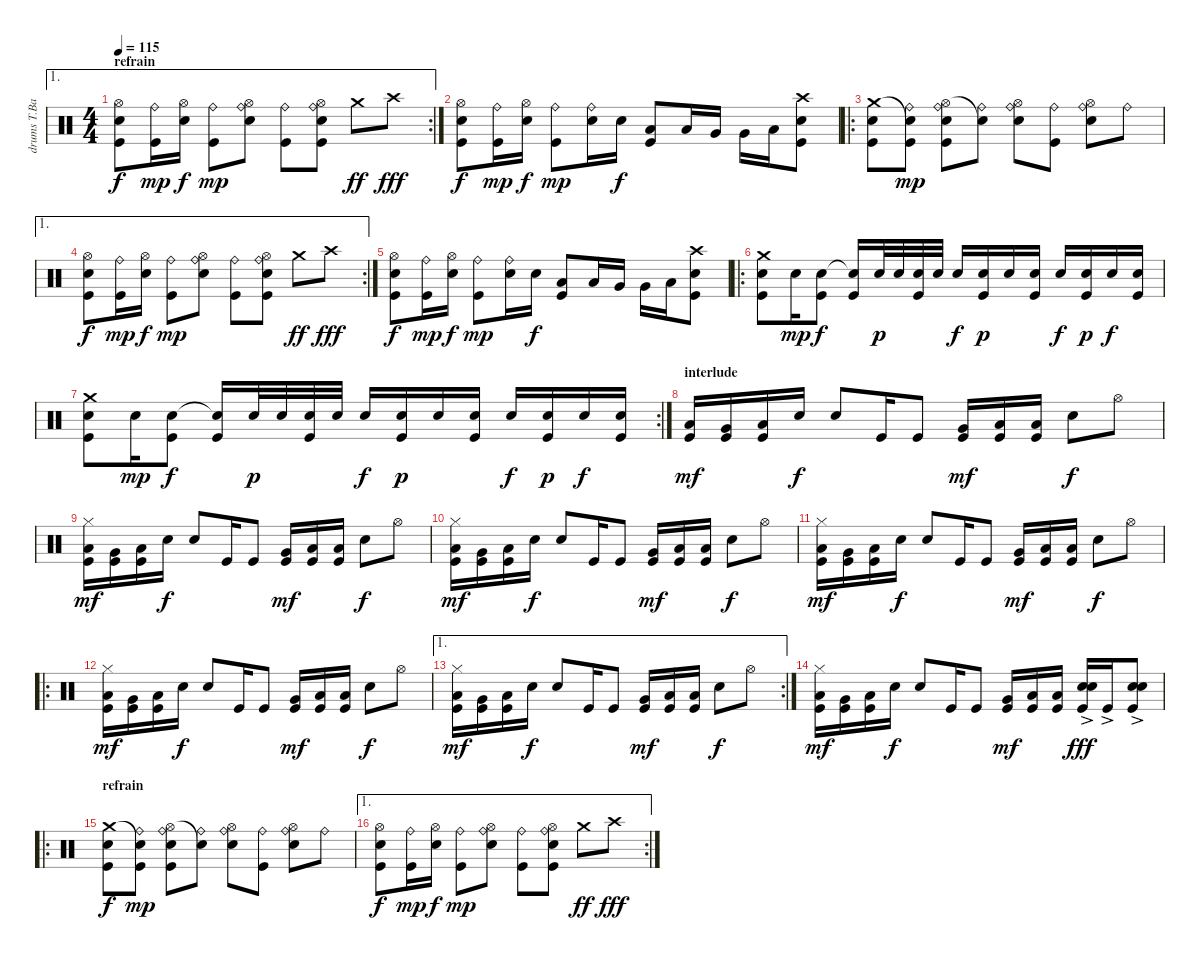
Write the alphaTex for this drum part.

\track ("drums T.Barker" "drums T.Ba") {instrument percussion}
\staff {score}
\articulation defaults
\ae 1
\rc 2
\ts (4 4)
\section ("" "refrain")
\tempo 115
\clef neutral
\ks c
("Hi-Hat (open)" "Electric Snare (hit)" "Kick (hit)").8{dy f} ("Ride (bell)" "Kick (hit)").16{dy mp} ("Hi-Hat (open)" "Electric Snare (hit)").16{dy f} ("Ride (bell)" "Kick (hit)").8{dy mp} ("Hi-Hat (open)" "Ride (bell)" "Electric Snare (hit)").8 ("Ride (bell)" "Kick (hit)").8 ("Hi-Hat (open)" "Ride (bell)" "Electric Snare (hit)" "Kick (hit)").8 "Crash medium (hit)".8{dy ff} "Crash high (hit)".8{dy fff} |
("Hi-Hat (open)" "Electric Snare (hit)" "Kick (hit)").8{dy f} ("Ride (bell)" "Kick (hit)").16{dy mp} ("Hi-Hat (open)" "Electric Snare (hit)").16{dy f} ("Ride (bell)" "Kick (hit)").8{dy mp} ("Ride (bell)" "Electric Snare (hit)").16 "Electric Snare (hit)".16{dy f} ("Low Tom (hit)" "Kick (hit)").8 "Low Tom (hit)".16 "Very Low Tom (hit)".16 "Very Low Tom (hit)".16 "Low Floor Tom (hit)".16 ("Crash high (hit)" "Electric Snare (hit)" "Kick (hit)").8 |
\ro
("Crash medium (hit)" "Electric Snare (hit)" "Kick (hit)").8 ("Snare (hit)"{t} "Ride (bell)" "Kick (hit)").8{dy mp} ("Hi-Hat (open)" "Ride (bell)" "Electric Snare (hit)" "Kick (hit)").8 ("Snare (hit)"{t} "Ride (bell)").8 ("Hi-Hat (open)" "Ride (bell)" "Electric Snare (hit)").8 ("Ride (bell)" "Kick (hit)").8 ("Hi-Hat (open)" "Ride (bell)" "Electric Snare (hit)").8 "Ride (bell)".8 |
\ae 1
\rc 2
("Hi-Hat (open)" "Electric Snare (hit)" "Kick (hit)").8{dy f} ("Ride (bell)" "Kick (hit)").16{dy mp} ("Hi-Hat (open)" "Electric Snare (hit)").16{dy f} ("Ride (bell)" "Kick (hit)").8{dy mp} ("Hi-Hat (open)" "Ride (bell)" "Electric Snare (hit)").8 ("Ride (bell)" "Kick (hit)").8 ("Hi-Hat (open)" "Ride (bell)" "Electric Snare (hit)" "Kick (hit)").8 "Crash medium (hit)".8{dy ff} "Crash high (hit)".8{dy fff} |
("Hi-Hat (open)" "Electric Snare (hit)" "Kick (hit)").8{dy f} ("Ride (bell)" "Kick (hit)").16{dy mp} ("Hi-Hat (open)" "Electric Snare (hit)").16{dy f} ("Ride (bell)" "Kick (hit)").8{dy mp} ("Ride (bell)" "Electric Snare (hit)").16 "Electric Snare (hit)".16{dy f} ("Low Tom (hit)" "Kick (hit)").8 "Low Tom (hit)".16 "Very Low Tom (hit)".16 "Very Low Tom (hit)".16 "Low Floor Tom (hit)".16 ("Crash high (hit)" "Electric Snare (hit)" "Kick (hit)").8 |
\ro
("Crash medium (hit)" "Electric Snare (hit)" "Kick (hit)").8 "Electric Snare (hit)".16{dy mp} ("Electric Snare (hit)" "Kick (hit)").8{dy f} ("Electric Snare (hit)"{t} "Kick (hit)").16 "Electric Snare (hit)".32{dy p} "Electric Snare (hit)".32 ("Electric Snare (hit)" "Kick (hit)").32 "Electric Snare (hit)".32 "Electric Snare (hit)".16{dy f} ("Electric Snare (hit)" "Kick (hit)").16{dy p} "Electric Snare (hit)".16 ("Electric Snare (hit)" "Kick (hit)").16 "Electric Snare (hit)".16{dy f} ("Electric Snare (hit)" "Kick (hit)").16{dy p} "Electric Snare (hit)".16{dy f} ("Electric Snare (hit)" "Kick (hit)").16 |
\rc 2
("Crash medium (hit)" "Electric Snare (hit)" "Kick (hit)").8 "Electric Snare (hit)".16{dy mp} ("Electric Snare (hit)" "Kick (hit)").8{dy f} ("Electric Snare (hit)"{t} "Kick (hit)").16 "Electric Snare (hit)".32{dy p} "Electric Snare (hit)".32 ("Electric Snare (hit)" "Kick (hit)").32 "Electric Snare (hit)".32 "Electric Snare (hit)".16{dy f} ("Electric Snare (hit)" "Kick (hit)").16{dy p} "Electric Snare (hit)".16 ("Electric Snare (hit)" "Kick (hit)").16 "Electric Snare (hit)".16{dy f} ("Electric Snare (hit)" "Kick (hit)").16{dy p} "Electric Snare (hit)".16{dy f} ("Electric Snare (hit)" "Kick (hit)").16 |
\section ("" "interlude")
("Low Tom (hit)" "Kick (hit)").16{dy mf} ("Very Low Tom (hit)" "Kick (hit)").16 ("Low Floor Tom (hit)" "Kick (hit)").16 "Electric Snare (hit)".16{dy f} "Electric Snare (hit)".8 "Kick (hit)".16 "Kick (hit)".8 ("Very Low Tom (hit)" "Kick (hit)").16{dy mf} ("Low Floor Tom (hit)" "Kick (hit)").16 ("Low Floor Tom (hit)" "Kick (hit)").16 "Electric Snare (hit)".8{dy f} "Hi-Hat (open)".8 |
("Hi-Hat (closed)" "Low Tom (hit)" "Kick (hit)").16{dy mf} ("Very Low Tom (hit)" "Kick (hit)").16 ("Low Floor Tom (hit)" "Kick (hit)").16 "Electric Snare (hit)".16{dy f} "Electric Snare (hit)".8 "Kick (hit)".16 "Kick (hit)".8 ("Very Low Tom (hit)" "Kick (hit)").16{dy mf} ("Low Floor Tom (hit)" "Kick (hit)").16 ("Low Floor Tom (hit)" "Kick (hit)").16 "Electric Snare (hit)".8{dy f} "Hi-Hat (open)".8 |
("Hi-Hat (closed)" "Low Tom (hit)" "Kick (hit)").16{dy mf} ("Very Low Tom (hit)" "Kick (hit)").16 ("Low Floor Tom (hit)" "Kick (hit)").16 "Electric Snare (hit)".16{dy f} "Electric Snare (hit)".8 "Kick (hit)".16 "Kick (hit)".8 ("Very Low Tom (hit)" "Kick (hit)").16{dy mf} ("Low Floor Tom (hit)" "Kick (hit)").16 ("Low Floor Tom (hit)" "Kick (hit)").16 "Electric Snare (hit)".8{dy f} "Hi-Hat (open)".8 |
("Hi-Hat (closed)" "Low Tom (hit)" "Kick (hit)").16{dy mf} ("Very Low Tom (hit)" "Kick (hit)").16 ("Low Floor Tom (hit)" "Kick (hit)").16 "Electric Snare (hit)".16{dy f} "Electric Snare (hit)".8 "Kick (hit)".16 "Kick (hit)".8 ("Very Low Tom (hit)" "Kick (hit)").16{dy mf} ("Low Floor Tom (hit)" "Kick (hit)").16 ("Low Floor Tom (hit)" "Kick (hit)").16 "Electric Snare (hit)".8{dy f} "Hi-Hat (open)".8 |
\ro
("Hi-Hat (closed)" "Low Tom (hit)" "Kick (hit)").16{dy mf} ("Very Low Tom (hit)" "Kick (hit)").16 ("Low Floor Tom (hit)" "Kick (hit)").16 "Electric Snare (hit)".16{dy f} "Electric Snare (hit)".8 "Kick (hit)".16 "Kick (hit)".8 ("Very Low Tom (hit)" "Kick (hit)").16{dy mf} ("Low Floor Tom (hit)" "Kick (hit)").16 ("Low Floor Tom (hit)" "Kick (hit)").16 "Electric Snare (hit)".8{dy f} "Hi-Hat (open)".8 |
\ae 1
\rc 2
("Hi-Hat (closed)" "Low Tom (hit)" "Kick (hit)").16{dy mf} ("Very Low Tom (hit)" "Kick (hit)").16 ("Low Floor Tom (hit)" "Kick (hit)").16 "Electric Snare (hit)".16{dy f} "Electric Snare (hit)".8 "Kick (hit)".16 "Kick (hit)".8 ("Very Low Tom (hit)" "Kick (hit)").16{dy mf} ("Low Floor Tom (hit)" "Kick (hit)").16 ("Low Floor Tom (hit)" "Kick (hit)").16 "Electric Snare (hit)".8{dy f} "Hi-Hat (open)".8 |
("Hi-Hat (closed)" "Low Tom (hit)" "Kick (hit)").16{dy mf} ("Very Low Tom (hit)" "Kick (hit)").16 ("Low Floor Tom (hit)" "Kick (hit)").16 "Electric Snare (hit)".16{dy f} "Electric Snare (hit)".8 "Kick (hit)".16 "Kick (hit)".8 ("Very Low Tom (hit)" "Kick (hit)").16{dy mf} ("Low Floor Tom (hit)" "Kick (hit)").16 ("Low Floor Tom (hit)" "Kick (hit)").16 ("Electric Snare (hit)" "Electric Snare (hit)"{ac} "Kick (hit)"{ac}).16{dy fff} "Kick (hit)"{ac}.16 ("Electric Snare (hit)" "Electric Snare (hit)"{ac} "Kick (hit)"{ac}).8 |
\ro
\section ("" "refrain")
("Crash medium (hit)" "Electric Snare (hit)" "Kick (hit)").8{dy f} ("Snare (hit)"{t} "Ride (bell)" "Kick (hit)").8{dy mp} ("Hi-Hat (open)" "Ride (bell)" "Electric Snare (hit)" "Kick (hit)").8 ("Snare (hit)"{t} "Ride (bell)").8 ("Hi-Hat (open)" "Ride (bell)" "Electric Snare (hit)").8 ("Ride (bell)" "Kick (hit)").8 ("Hi-Hat (open)" "Ride (bell)" "Electric Snare (hit)").8 "Ride (bell)".8 |
\ae 1
\rc 2
("Hi-Hat (open)" "Electric Snare (hit)" "Kick (hit)").8{dy f} ("Ride (bell)" "Kick (hit)").16{dy mp} ("Hi-Hat (open)" "Electric Snare (hit)").16{dy f} ("Ride (bell)" "Kick (hit)").8{dy mp} ("Hi-Hat (open)" "Ride (bell)" "Electric Snare (hit)").8 ("Ride (bell)" "Kick (hit)").8 ("Hi-Hat (open)" "Ride (bell)" "Electric Snare (hit)" "Kick (hit)").8 "Crash medium (hit)".8{dy ff} "Crash high (hit)".8{dy fff}
